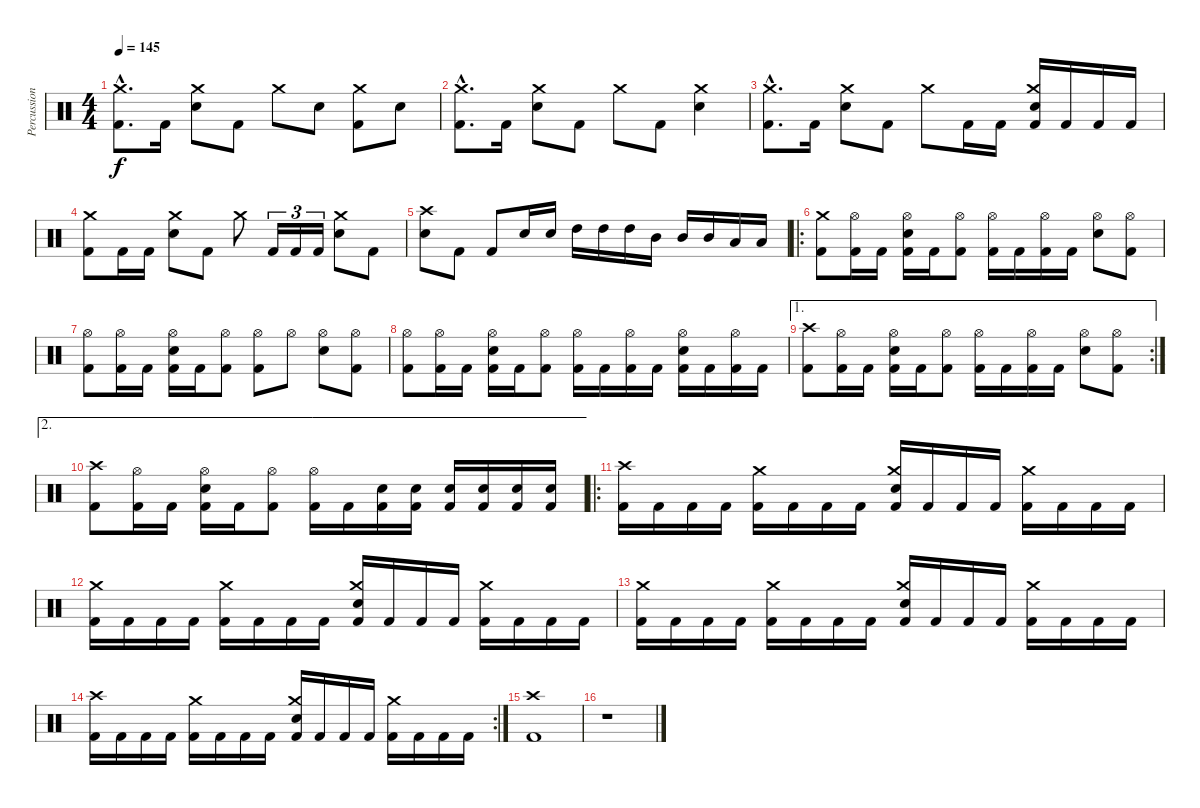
\track ("Percussion" "Percussion") {instrument percussion}
\staff {score}
\articulation defaults
\ts (4 4)
\tempo 145
\clef neutral
\ks c
("Kick (hit) 2"{hac} "Crash medium (hit)"{hac}).8{d dy f} "Kick (hit) 2".16 ("Electric Snare (hit)" "Crash medium (hit)").8 "Kick (hit) 2".8 "Crash medium (hit)".8 "Electric Snare (hit)".8 ("Kick (hit) 2" "Crash medium (hit)").8 "Electric Snare (hit)".8 |
("Kick (hit) 2"{hac} "Crash medium (hit)"{hac}).8{d} "Kick (hit) 2".16 ("Electric Snare (hit)" "Crash medium (hit)").8 "Kick (hit) 2".8 "Crash medium (hit)".8 "Kick (hit) 2".8 ("Electric Snare (hit)" "Crash medium (hit)").4 |
("Kick (hit) 2"{hac} "Crash medium (hit)"{hac}).8{d} "Kick (hit) 2".16 ("Electric Snare (hit)" "Crash medium (hit)").8 "Kick (hit) 2".8 "Crash medium (hit)".8 "Kick (hit) 2".16 "Kick (hit) 2".16 ("Kick (hit) 2" "Electric Snare (hit)" "Crash medium (hit)").16 "Kick (hit) 2".16 "Kick (hit) 2".16 "Kick (hit) 2".16 |
("Kick (hit) 2" "Crash medium (hit)").8 "Kick (hit) 2".16 "Kick (hit) 2".16 ("Electric Snare (hit)" "Crash medium (hit)").8 "Kick (hit) 2".8 "Crash medium (hit)".8 "Kick (hit) 2".16{tu (3 2)} "Kick (hit) 2".16{tu (3 2)} "Kick (hit) 2".16{tu (3 2)} ("Electric Snare (hit)" "Crash medium (hit)").8 "Kick (hit) 2".8 |
("Electric Snare (hit)" "Crash high (hit)").8 "Kick (hit) 2".8 "Kick (hit) 2".8 "Electric Snare (hit)".16 "Electric Snare (hit)".16 "High Tom (hit)".16 "High Tom (hit)".16 "High Tom (hit)".16 "Mid Tom (hit)".16 "Mid Tom (hit)".16 "Mid Tom (hit)".16 "Low Tom (hit)".16 "Low Tom (hit)".16 |
\ro
("Kick (hit) 2" "Crash medium (hit)").8 ("Kick (hit) 2" "Hi-Hat (open)").16 "Kick (hit) 2".16 ("Kick (hit) 2" "Electric Snare (hit)" "Hi-Hat (open)").16 "Kick (hit) 2".16 ("Kick (hit) 2" "Hi-Hat (open)").8 ("Kick (hit) 2" "Hi-Hat (open)").16 "Kick (hit) 2".16 ("Kick (hit) 2" "Hi-Hat (open)").16 "Kick (hit) 2".16 ("Electric Snare (hit)" "Hi-Hat (open)").8 ("Kick (hit) 2" "Hi-Hat (open)").8 |
("Kick (hit) 2" "Hi-Hat (open)").8 ("Kick (hit) 2" "Hi-Hat (open)").16 "Kick (hit) 2".16 ("Kick (hit) 2" "Electric Snare (hit)" "Hi-Hat (open)").16 "Kick (hit) 2".16 ("Kick (hit) 2" "Hi-Hat (open)").8 ("Kick (hit) 2" "Hi-Hat (open)").8 "Hi-Hat (open)".8 ("Electric Snare (hit)" "Hi-Hat (open)").8 ("Kick (hit) 2" "Hi-Hat (open)").8 |
("Kick (hit) 2" "Hi-Hat (open)").8 ("Kick (hit) 2" "Hi-Hat (open)").16 "Kick (hit) 2".16 ("Kick (hit) 2" "Electric Snare (hit)" "Hi-Hat (open)").16 "Kick (hit) 2".16 ("Kick (hit) 2" "Hi-Hat (open)").8 ("Kick (hit) 2" "Hi-Hat (open)").16 "Kick (hit) 2".16 ("Kick (hit) 2" "Hi-Hat (open)").16 "Kick (hit) 2".16 ("Kick (hit) 2" "Electric Snare (hit)" "Hi-Hat (open)").16 "Kick (hit) 2".16 ("Kick (hit) 2" "Hi-Hat (open)").16 "Kick (hit) 2".16 |
\ae 1
\rc 2
("Kick (hit) 2" "Crash high (hit)").8 ("Kick (hit) 2" "Hi-Hat (open)").16 "Kick (hit) 2".16 ("Kick (hit) 2" "Electric Snare (hit)" "Hi-Hat (open)").16 "Kick (hit) 2".16 ("Kick (hit) 2" "Hi-Hat (open)").8 ("Kick (hit) 2" "Hi-Hat (open)").16 "Kick (hit) 2".16 ("Kick (hit) 2" "Hi-Hat (open)").16 "Kick (hit) 2".16 ("Electric Snare (hit)" "Hi-Hat (open)").8 ("Kick (hit) 2" "Hi-Hat (open)").8 |
\ae 2
("Kick (hit) 2" "Crash high (hit)").8 ("Kick (hit) 2" "Hi-Hat (open)").16 "Kick (hit) 2".16 ("Kick (hit) 2" "Electric Snare (hit)" "Hi-Hat (open)").16 "Kick (hit) 2".16 ("Kick (hit) 2" "Hi-Hat (open)").8 ("Kick (hit) 2" "Hi-Hat (open)").16 "Kick (hit) 2".16 ("Kick (hit) 2" "Electric Snare (hit)").16 ("Kick (hit) 2" "Electric Snare (hit)").16 ("Kick (hit) 2" "Electric Snare (hit)").16 ("Kick (hit) 2" "Electric Snare (hit)").16 ("Kick (hit) 2" "Electric Snare (hit)").16 ("Kick (hit) 2" "Electric Snare (hit)").16 |
\ro
("Kick (hit) 2" "Crash high (hit)").16 "Kick (hit) 2".16 "Kick (hit) 2".16 "Kick (hit) 2".16 ("Kick (hit) 2" "Crash medium (hit)").16 "Kick (hit) 2".16 "Kick (hit) 2".16 "Kick (hit) 2".16 ("Kick (hit) 2" "Electric Snare (hit)" "Crash medium (hit)").16 "Kick (hit) 2".16 "Kick (hit) 2".16 "Kick (hit) 2".16 ("Kick (hit) 2" "Crash medium (hit)").16 "Kick (hit) 2".16 "Kick (hit) 2".16 "Kick (hit) 2".16 |
("Kick (hit) 2" "Crash medium (hit)").16 "Kick (hit) 2".16 "Kick (hit) 2".16 "Kick (hit) 2".16 ("Kick (hit) 2" "Crash medium (hit)").16 "Kick (hit) 2".16 "Kick (hit) 2".16 "Kick (hit) 2".16 ("Kick (hit) 2" "Electric Snare (hit)" "Crash medium (hit)").16 "Kick (hit) 2".16 "Kick (hit) 2".16 "Kick (hit) 2".16 ("Kick (hit) 2" "Crash medium (hit)").16 "Kick (hit) 2".16 "Kick (hit) 2".16 "Kick (hit) 2".16 |
("Kick (hit) 2" "Crash medium (hit)").16 "Kick (hit) 2".16 "Kick (hit) 2".16 "Kick (hit) 2".16 ("Kick (hit) 2" "Crash medium (hit)").16 "Kick (hit) 2".16 "Kick (hit) 2".16 "Kick (hit) 2".16 ("Kick (hit) 2" "Electric Snare (hit)" "Crash medium (hit)").16 "Kick (hit) 2".16 "Kick (hit) 2".16 "Kick (hit) 2".16 ("Kick (hit) 2" "Crash medium (hit)").16 "Kick (hit) 2".16 "Kick (hit) 2".16 "Kick (hit) 2".16 |
\rc 2
("Kick (hit) 2" "Crash high (hit)").16 "Kick (hit) 2".16 "Kick (hit) 2".16 "Kick (hit) 2".16 ("Kick (hit) 2" "Crash medium (hit)").16 "Kick (hit) 2".16 "Kick (hit) 2".16 "Kick (hit) 2".16 ("Kick (hit) 2" "Electric Snare (hit)" "Crash medium (hit)").16 "Kick (hit) 2".16 "Kick (hit) 2".16 "Kick (hit) 2".16 ("Kick (hit) 2" "Crash medium (hit)").16 "Kick (hit) 2".16 "Kick (hit) 2".16 "Kick (hit) 2".16 |
("Kick (hit) 2" "Crash high (hit)").1 |
r.1
